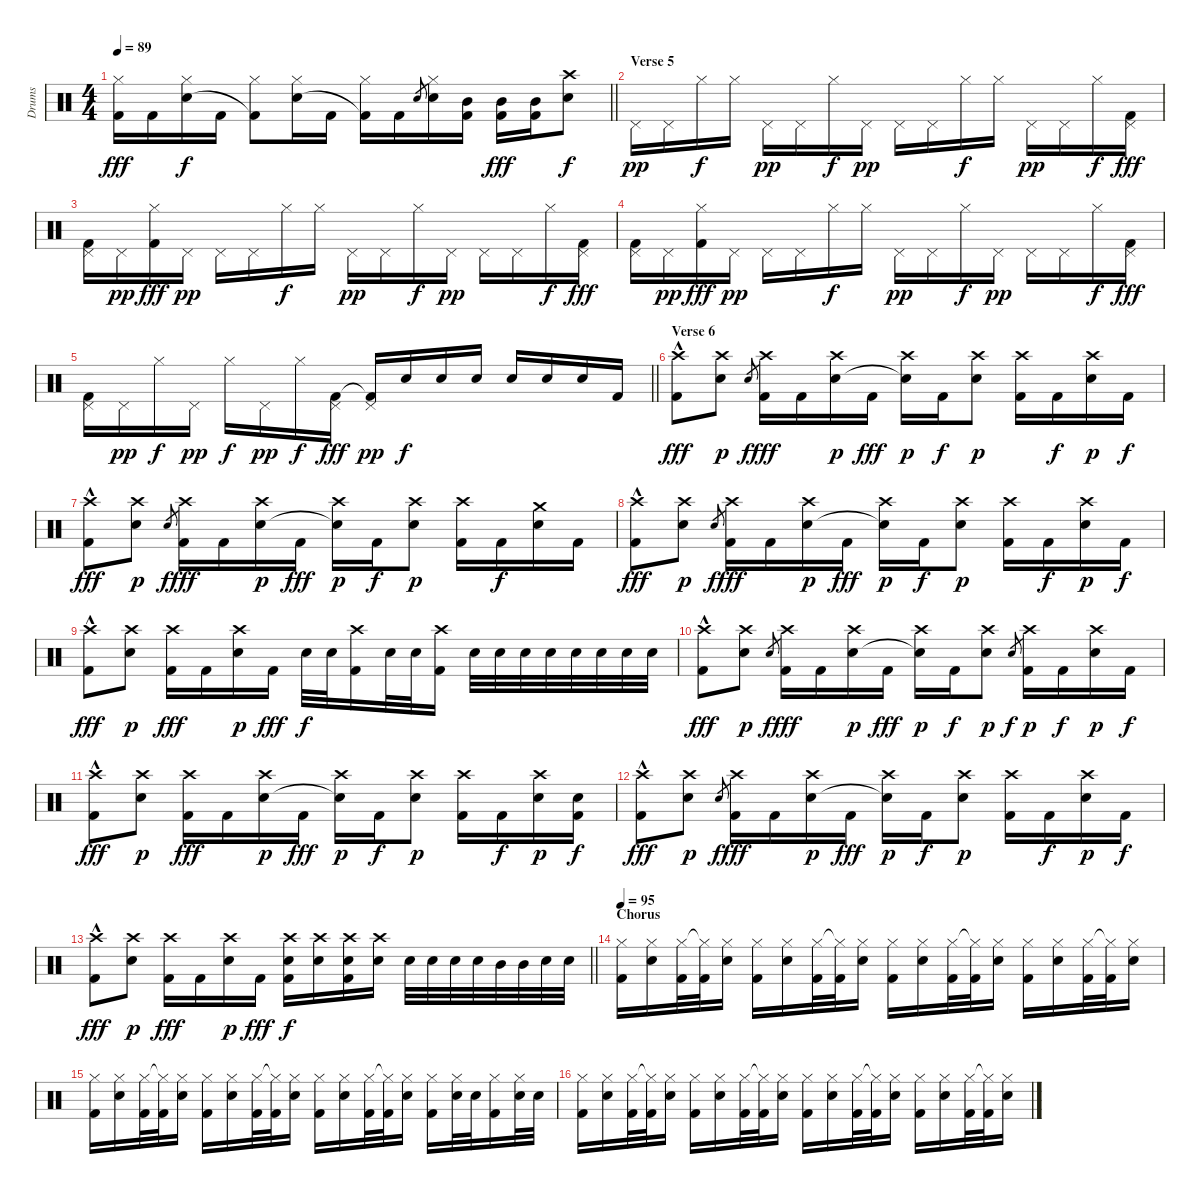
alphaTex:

\track ("Drums" "Drums") {instrument percussion}
\staff {score}
\articulation defaults
\ts (4 4)
\tempo 89
\clef neutral
\barLineRight lightlight
\ks c
("Hi-Hat (closed)" "Kick (hit) 2").16{dy fff} "Kick (hit) 2".16 ("Hi-Hat (closed)" "Snare (hit) 2").16{dy f} "Kick (hit) 2".16 ("Hi-Hat (closed)" "Kick (hit) 2"{t}).8 ("Hi-Hat (closed)" "Snare (hit) 2").16 "Kick (hit) 2".16 ("Hi-Hat (closed)" "Kick (hit) 2"{t}).16 "Kick (hit) 2".16 "Snare (hit) 2".8{gr} ("Hi-Hat (closed)" "Snare (hit) 2").16 ("Mid Tom (hit)" "Kick (hit) 2").16 ("Mid Tom (hit)" "Kick (hit) 2").16{dy fff} ("Mid Tom (hit)" "Kick (hit) 2").16 ("Crash high (hit)" "Snare (hit) 2").8{dy f} |
\section ("" "Verse 5")
"Pedal Hi-Hat (hit)".16{dy pp} "Pedal Hi-Hat (hit)".16 "Hi-Hat (closed)".16{dy f} "Hi-Hat (closed)".16 "Pedal Hi-Hat (hit)".16{dy pp} "Pedal Hi-Hat (hit)".16 "Hi-Hat (closed)".16{dy f} "Pedal Hi-Hat (hit)".16{dy pp} "Pedal Hi-Hat (hit)".16 "Pedal Hi-Hat (hit)".16 "Hi-Hat (closed)".16{dy f} "Hi-Hat (closed)".16 "Pedal Hi-Hat (hit)".16{dy pp} "Pedal Hi-Hat (hit)".16 "Hi-Hat (closed)".16{dy f} ("Pedal Hi-Hat (hit)" "Kick (hit) 2").16{dy fff} |
("Pedal Hi-Hat (hit)" "Kick (hit) 2").16 "Pedal Hi-Hat (hit)".16{dy pp} ("Hi-Hat (closed)" "Kick (hit) 2").16{dy fff} "Pedal Hi-Hat (hit)".16{dy pp} "Pedal Hi-Hat (hit)".16 "Pedal Hi-Hat (hit)".16 "Hi-Hat (closed)".16{dy f} "Hi-Hat (closed)".16 "Pedal Hi-Hat (hit)".16{dy pp} "Pedal Hi-Hat (hit)".16 "Hi-Hat (closed)".16{dy f} "Pedal Hi-Hat (hit)".16{dy pp} "Pedal Hi-Hat (hit)".16 "Pedal Hi-Hat (hit)".16 "Hi-Hat (closed)".16{dy f} ("Pedal Hi-Hat (hit)" "Kick (hit) 2").16{dy fff} |
("Pedal Hi-Hat (hit)" "Kick (hit) 2").16 "Pedal Hi-Hat (hit)".16{dy pp} ("Hi-Hat (closed)" "Kick (hit) 2").16{dy fff} "Pedal Hi-Hat (hit)".16{dy pp} "Pedal Hi-Hat (hit)".16 "Pedal Hi-Hat (hit)".16 "Hi-Hat (closed)".16{dy f} "Hi-Hat (closed)".16 "Pedal Hi-Hat (hit)".16{dy pp} "Pedal Hi-Hat (hit)".16 "Hi-Hat (closed)".16{dy f} "Pedal Hi-Hat (hit)".16{dy pp} "Pedal Hi-Hat (hit)".16 "Pedal Hi-Hat (hit)".16 "Hi-Hat (closed)".16{dy f} ("Pedal Hi-Hat (hit)" "Kick (hit) 2").16{dy fff} |
\barLineRight lightlight
("Pedal Hi-Hat (hit)" "Kick (hit) 2").16 "Pedal Hi-Hat (hit)".16{dy pp} "Hi-Hat (closed)".16{dy f} "Pedal Hi-Hat (hit)".16{dy pp} "Hi-Hat (closed)".16{dy f} "Pedal Hi-Hat (hit)".16{dy pp} "Hi-Hat (closed)".16{dy f} ("Pedal Hi-Hat (hit)" "Kick (hit) 2").16{dy fff} ("Pedal Hi-Hat (hit)" "Kick (hit) 2"{t}).16{dy pp} "Snare (hit) 2".16{dy f} "Snare (hit) 2".16 "Snare (hit) 2".16 "Snare (hit) 2".16 "Snare (hit) 2".16 "Snare (hit) 2".16 "Kick (hit) 2".16 |
\section ("" "Verse 6")
("Crash high (hit)"{hac} "Kick (hit) 2").8{dy fff} ("Crash high (hit)" "Snare (hit) 2").8{dy p} "Snare (hit) 2".8{gr dy f} ("Crash high (hit)" "Kick (hit) 2").16{dy fff} "Kick (hit) 2".16 ("Crash high (hit)" "Snare (hit) 2").16{dy p} "Kick (hit) 2".16{dy fff} ("Crash high (hit)" "Snare (hit)"{t}).16{dy p} "Kick (hit) 2".16{dy f} ("Crash high (hit)" "Snare (hit) 2").8{dy p} ("Crash high (hit)" "Kick (hit) 2").16 "Kick (hit) 2".16{dy f} ("Crash high (hit)" "Snare (hit) 2").16{dy p} "Kick (hit) 2".16{dy f} |
("Crash high (hit)"{hac} "Kick (hit) 2").8{dy fff} ("Crash high (hit)" "Snare (hit) 2").8{dy p} "Snare (hit) 2".8{gr dy f} ("Crash high (hit)" "Kick (hit) 2").16{dy fff} "Kick (hit) 2".16 ("Crash high (hit)" "Snare (hit) 2").16{dy p} "Kick (hit) 2".16{dy fff} ("Crash high (hit)" "Snare (hit)"{t}).16{dy p} "Kick (hit) 2".16{dy f} ("Crash high (hit)" "Snare (hit) 2").8{dy p} ("Crash high (hit)" "Kick (hit) 2").16 "Kick (hit) 2".16{dy f} ("Crash medium (hit)" "Snare (hit) 2").16 "Kick (hit) 2".16 |
("Crash high (hit)"{hac} "Kick (hit) 2").8{dy fff} ("Crash high (hit)" "Snare (hit) 2").8{dy p} "Snare (hit) 2".8{gr dy f} ("Crash high (hit)" "Kick (hit) 2").16{dy fff} "Kick (hit) 2".16 ("Crash high (hit)" "Snare (hit) 2").16{dy p} "Kick (hit) 2".16{dy fff} ("Crash high (hit)" "Snare (hit)"{t}).16{dy p} "Kick (hit) 2".16{dy f} ("Crash high (hit)" "Snare (hit) 2").8{dy p} ("Crash high (hit)" "Kick (hit) 2").16 "Kick (hit) 2".16{dy f} ("Crash high (hit)" "Snare (hit) 2").16{dy p} "Kick (hit) 2".16{dy f} |
("Crash high (hit)"{hac} "Kick (hit) 2").8{dy fff} ("Crash high (hit)" "Snare (hit) 2").8{dy p} ("Crash high (hit)" "Kick (hit) 2").16{dy fff} "Kick (hit) 2".16 ("Crash high (hit)" "Snare (hit) 2").16{dy p} "Kick (hit) 2".16{dy fff} "Snare (hit) 2".32{dy f} "Snare (hit) 2".32 ("Crash high (hit)" "Kick (hit) 2").16 "Snare (hit) 2".32 "Snare (hit) 2".32 ("Crash high (hit)" "Kick (hit) 2").16 "Snare (hit) 2".32 "Snare (hit) 2".32 "Snare (hit) 2".32 "Snare (hit) 2".32 "Snare (hit) 2".32 "Snare (hit) 2".32 "Snare (hit) 2".32 "Snare (hit) 2".32 |
("Crash high (hit)"{hac} "Kick (hit) 2").8{dy fff} ("Crash high (hit)" "Snare (hit) 2").8{dy p} "Snare (hit) 2".8{gr dy f} ("Crash high (hit)" "Kick (hit) 2").16{dy fff} "Kick (hit) 2".16 ("Crash high (hit)" "Snare (hit) 2").16{dy p} "Kick (hit) 2".16{dy fff} ("Crash high (hit)" "Snare (hit)"{t}).16{dy p} "Kick (hit) 2".16{dy f} ("Crash high (hit)" "Snare (hit) 2").8{dy p} "Snare (hit) 2".8{gr dy f} ("Crash high (hit)" "Kick (hit) 2").16{dy p} "Kick (hit) 2".16{dy f} ("Crash high (hit)" "Snare (hit) 2").16{dy p} "Kick (hit) 2".16{dy f} |
("Crash high (hit)"{hac} "Kick (hit) 2").8{dy fff} ("Crash high (hit)" "Snare (hit) 2").8{dy p} ("Crash high (hit)" "Kick (hit) 2").16{dy fff} "Kick (hit) 2".16 ("Crash high (hit)" "Snare (hit) 2").16{dy p} "Kick (hit) 2".16{dy fff} ("Crash high (hit)" "Snare (hit)"{t}).16{dy p} "Kick (hit) 2".16{dy f} ("Crash high (hit)" "Snare (hit) 2").8{dy p} ("Crash high (hit)" "Kick (hit) 2").16 "Kick (hit) 2".16{dy f} ("Crash high (hit)" "Snare (hit) 2").16{dy p} ("Snare (hit) 2" "Kick (hit) 2").16{dy f} |
("Crash high (hit)"{hac} "Kick (hit) 2").8{dy fff} ("Crash high (hit)" "Snare (hit) 2").8{dy p} "Snare (hit) 2".8{gr dy f} ("Crash high (hit)" "Kick (hit) 2").16{dy fff} "Kick (hit) 2".16 ("Crash high (hit)" "Snare (hit) 2").16{dy p} "Kick (hit) 2".16{dy fff} ("Crash high (hit)" "Snare (hit)"{t}).16{dy p} "Kick (hit) 2".16{dy f} ("Crash high (hit)" "Snare (hit) 2").8{dy p} ("Crash high (hit)" "Kick (hit) 2").16 "Kick (hit) 2".16{dy f} ("Crash high (hit)" "Snare (hit) 2").16{dy p} "Kick (hit) 2".16{dy f} |
\barLineRight lightlight
("Crash high (hit)"{hac} "Kick (hit) 2").8{dy fff} ("Crash high (hit)" "Snare (hit) 2").8{dy p} ("Crash high (hit)" "Kick (hit) 2").16{dy fff} "Kick (hit) 2".16 ("Crash high (hit)" "Snare (hit) 2").16{dy p} "Kick (hit) 2".16{dy fff} ("Crash high (hit)" "Snare (hit) 2" "Kick (hit) 2").16{dy f} ("Crash high (hit)" "Snare (hit) 2").16 ("Crash high (hit)" "Snare (hit) 2" "Kick (hit) 2").16 ("Crash high (hit)" "Snare (hit) 2").16 "Snare (hit) 2".32 "Snare (hit) 2".32 "Snare (hit) 2".32 "Snare (hit) 2".32 "Mid Tom (hit)".32 "Mid Tom (hit)".32 "Snare (hit) 2".32 "Snare (hit) 2".32 |
\section ("" "Chorus")
\tempo 95
("Hi-Hat (closed)" "Kick (hit) 2").16 ("Hi-Hat (closed)" "Snare (hit) 2").16 ("Hi-Hat (closed)" "Kick (hit) 2").32 ("Hi-Hat (closed)"{t} "Kick (hit) 2").32 ("Hi-Hat (closed)" "Snare (hit) 2").16 ("Hi-Hat (closed)" "Kick (hit) 2").16 ("Hi-Hat (closed)" "Snare (hit) 2").16 ("Hi-Hat (closed)" "Kick (hit) 2").32 ("Hi-Hat (closed)"{t} "Kick (hit) 2").32 ("Hi-Hat (closed)" "Snare (hit) 2").16 ("Hi-Hat (closed)" "Kick (hit) 2").16 ("Hi-Hat (closed)" "Snare (hit) 2").16 ("Hi-Hat (closed)" "Kick (hit) 2").32 ("Hi-Hat (closed)"{t} "Kick (hit) 2").32 ("Hi-Hat (closed)" "Snare (hit) 2").16 ("Hi-Hat (closed)" "Kick (hit) 2").16 ("Hi-Hat (closed)" "Snare (hit) 2").16 ("Hi-Hat (closed)" "Kick (hit) 2").32 ("Hi-Hat (closed)"{t} "Kick (hit) 2").32 ("Hi-Hat (closed)" "Snare (hit) 2").16 |
("Hi-Hat (closed)" "Kick (hit) 2").16 ("Hi-Hat (closed)" "Snare (hit) 2").16 ("Hi-Hat (closed)" "Kick (hit) 2").32 ("Hi-Hat (closed)"{t} "Kick (hit) 2").32 ("Hi-Hat (closed)" "Snare (hit) 2").16 ("Hi-Hat (closed)" "Kick (hit) 2").16 ("Hi-Hat (closed)" "Snare (hit) 2").16 ("Hi-Hat (closed)" "Kick (hit) 2").32 ("Hi-Hat (closed)"{t} "Kick (hit) 2").32 ("Hi-Hat (closed)" "Snare (hit) 2").16 ("Hi-Hat (closed)" "Kick (hit) 2").16 ("Hi-Hat (closed)" "Snare (hit) 2").16 ("Hi-Hat (closed)" "Kick (hit) 2").32 ("Hi-Hat (closed)"{t} "Kick (hit) 2").32 ("Hi-Hat (closed)" "Snare (hit) 2").16 ("Hi-Hat (closed)" "Kick (hit) 2").16 ("Hi-Hat (closed)" "Snare (hit) 2").32 "Snare (hit) 2".32 ("Hi-Hat (closed)" "Kick (hit) 2").16 ("Hi-Hat (closed)" "Snare (hit) 2").32 "Snare (hit) 2".32 |
("Hi-Hat (closed)" "Kick (hit) 2").16 ("Hi-Hat (closed)" "Snare (hit) 2").16 ("Hi-Hat (closed)" "Kick (hit) 2").32 ("Hi-Hat (closed)"{t} "Kick (hit) 2").32 ("Hi-Hat (closed)" "Snare (hit) 2").16 ("Hi-Hat (closed)" "Kick (hit) 2").16 ("Hi-Hat (closed)" "Snare (hit) 2").16 ("Hi-Hat (closed)" "Kick (hit) 2").32 ("Hi-Hat (closed)"{t} "Kick (hit) 2").32 ("Hi-Hat (closed)" "Snare (hit) 2").16 ("Hi-Hat (closed)" "Kick (hit) 2").16 ("Hi-Hat (closed)" "Snare (hit) 2").16 ("Hi-Hat (closed)" "Kick (hit) 2").32 ("Hi-Hat (closed)"{t} "Kick (hit) 2").32 ("Hi-Hat (closed)" "Snare (hit) 2").16 ("Hi-Hat (closed)" "Kick (hit) 2").16 ("Hi-Hat (closed)" "Snare (hit) 2").16 ("Hi-Hat (closed)" "Kick (hit) 2").32 ("Hi-Hat (closed)"{t} "Kick (hit) 2").32 ("Hi-Hat (closed)" "Snare (hit) 2").16
